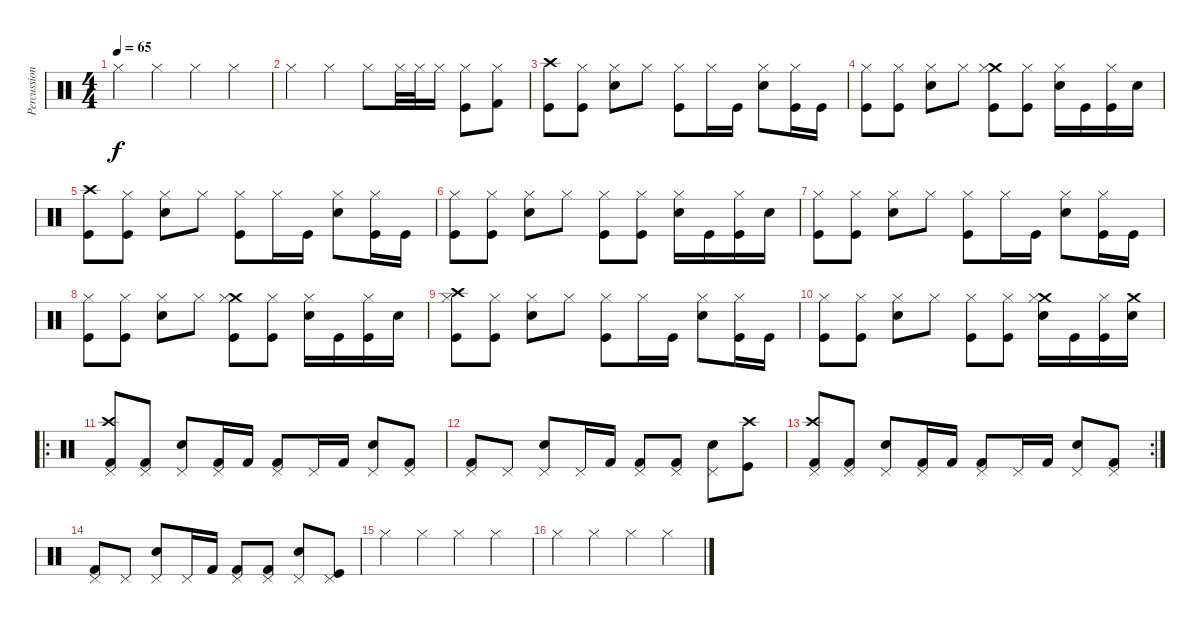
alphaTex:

\track ("Percussion" "Percussion") {instrument percussion}
\staff {score}
\articulation defaults
\ts (4 4)
\tempo 65
\clef neutral
\ks c "Hi-Hat (closed)".4{dy f} "Hi-Hat (closed)".4 "Hi-Hat (closed)".4 "Hi-Hat (closed)".4
|
"Hi-Hat (closed)".4 "Hi-Hat (closed)".4 "Hi-Hat (closed)".8 "Hi-Hat (closed)".32 "Hi-Hat (closed)".32 "Hi-Hat (closed)".16 ("Hi-Hat (closed)" "Kick (hit)").8 ("Hi-Hat (closed)" "Kick (hit) 2").8 |
("Crash high (hit)" "Kick (hit)").8 ("Hi-Hat (closed)" "Kick (hit)").8 ("Hi-Hat (closed)" "Electric Snare (hit)").8 "Hi-Hat (closed)".8 ("Hi-Hat (closed)" "Kick (hit)").8 "Hi-Hat (closed)".16 "Kick (hit)".16 ("Hi-Hat (closed)" "Electric Snare (hit)").8 ("Hi-Hat (closed)" "Kick (hit)").16 "Kick (hit)".16 |
("Hi-Hat (closed)" "Kick (hit)").8 ("Hi-Hat (closed)" "Kick (hit)").8 ("Hi-Hat (closed)" "Electric Snare (hit)").8 "Hi-Hat (closed)".8 ("Crash medium (hit)" "Hi-Hat (closed)" "Kick (hit)").8 ("Hi-Hat (closed)" "Kick (hit)").8 ("Hi-Hat (closed)" "Electric Snare (hit)").16 "Kick (hit)".16 ("Hi-Hat (closed)" "Kick (hit)").16 "Electric Snare (hit)".16 |
("Crash high (hit)" "Kick (hit)").8 ("Hi-Hat (closed)" "Kick (hit)").8 ("Hi-Hat (closed)" "Electric Snare (hit)").8 "Hi-Hat (closed)".8 ("Hi-Hat (closed)" "Kick (hit)").8 "Hi-Hat (closed)".16 "Kick (hit)".16 ("Hi-Hat (closed)" "Electric Snare (hit)").8 ("Hi-Hat (closed)" "Kick (hit)").16 "Kick (hit)".16 |
("Hi-Hat (closed)" "Kick (hit)").8 ("Hi-Hat (closed)" "Kick (hit)").8 ("Hi-Hat (closed)" "Electric Snare (hit)").8 "Hi-Hat (closed)".8 ("Hi-Hat (closed)" "Kick (hit)").8 ("Hi-Hat (closed)" "Kick (hit)").8 ("Hi-Hat (closed)" "Electric Snare (hit)").16 "Kick (hit)".16 ("Hi-Hat (closed)" "Kick (hit)").16 "Electric Snare (hit)".16 |
("Hi-Hat (closed)" "Kick (hit)").8 ("Hi-Hat (closed)" "Kick (hit)").8 ("Hi-Hat (closed)" "Electric Snare (hit)").8 "Hi-Hat (closed)".8 ("Hi-Hat (closed)" "Kick (hit)").8 "Hi-Hat (closed)".16 "Kick (hit)".16 ("Hi-Hat (closed)" "Electric Snare (hit)").8 ("Hi-Hat (closed)" "Kick (hit)").16 "Kick (hit)".16 |
("Hi-Hat (closed)" "Kick (hit)").8 ("Hi-Hat (closed)" "Kick (hit)").8 ("Hi-Hat (closed)" "Electric Snare (hit)").8 "Hi-Hat (closed)".8 ("Crash medium (hit)" "Hi-Hat (closed)" "Kick (hit)").8 ("Hi-Hat (closed)" "Kick (hit)").8 ("Hi-Hat (closed)" "Electric Snare (hit)").16 "Kick (hit)".16 ("Hi-Hat (closed)" "Kick (hit)").16 "Electric Snare (hit)".16 |
("Crash high (hit)" "Hi-Hat (closed)" "Kick (hit)").8 ("Hi-Hat (closed)" "Kick (hit)").8 ("Hi-Hat (closed)" "Electric Snare (hit)").8 "Hi-Hat (closed)".8 ("Hi-Hat (closed)" "Kick (hit)").8 "Hi-Hat (closed)".16 "Kick (hit)".16 ("Hi-Hat (closed)" "Electric Snare (hit)").8 ("Hi-Hat (closed)" "Kick (hit)").16 "Kick (hit)".16 |
("Hi-Hat (closed)" "Kick (hit)").8 ("Hi-Hat (closed)" "Kick (hit)").8 ("Hi-Hat (closed)" "Electric Snare (hit)").8 "Hi-Hat (closed)".8 ("Hi-Hat (closed)" "Kick (hit)").8 ("Hi-Hat (closed)" "Kick (hit)").8 ("Crash medium (hit)" "Hi-Hat (closed)" "Electric Snare (hit)").16 "Kick (hit)".16 ("Hi-Hat (closed)" "Kick (hit)").16 ("Crash medium (hit)" "Electric Snare (hit)").16 |
\ro
("Crash high (hit)" "Pedal Hi-Hat (hit)" "Kick (hit) 2").8 ("Pedal Hi-Hat (hit)" "Kick (hit) 2").8 ("Pedal Hi-Hat (hit)" "Electric Snare (hit)").8 ("Pedal Hi-Hat (hit)" "Kick (hit) 2").16 "Kick (hit) 2".16 ("Pedal Hi-Hat (hit)" "Kick (hit) 2").8 "Pedal Hi-Hat (hit)".16 "Kick (hit) 2".16 ("Pedal Hi-Hat (hit)" "Electric Snare (hit)").8 ("Pedal Hi-Hat (hit)" "Kick (hit) 2").8 |
("Pedal Hi-Hat (hit)" "Kick (hit) 2").8 "Pedal Hi-Hat (hit)".8 ("Pedal Hi-Hat (hit)" "Electric Snare (hit)").8 "Pedal Hi-Hat (hit)".16 "Kick (hit) 2".16 ("Pedal Hi-Hat (hit)" "Kick (hit) 2").8 ("Pedal Hi-Hat (hit)" "Kick (hit) 2").8 ("Pedal Hi-Hat (hit)" "Electric Snare (hit)").8 ("Crash high (hit)" "Kick (hit)").8 |
\rc 2
("Crash high (hit)" "Pedal Hi-Hat (hit)" "Kick (hit) 2").8 ("Pedal Hi-Hat (hit)" "Kick (hit) 2").8 ("Pedal Hi-Hat (hit)" "Electric Snare (hit)").8 ("Pedal Hi-Hat (hit)" "Kick (hit) 2").16 "Kick (hit) 2".16 ("Pedal Hi-Hat (hit)" "Kick (hit) 2").8 "Pedal Hi-Hat (hit)".16 "Kick (hit) 2".16 ("Pedal Hi-Hat (hit)" "Electric Snare (hit)").8 ("Pedal Hi-Hat (hit)" "Kick (hit) 2").8 |
("Pedal Hi-Hat (hit)" "Kick (hit) 2").8 "Pedal Hi-Hat (hit)".8 ("Pedal Hi-Hat (hit)" "Electric Snare (hit)").8 "Pedal Hi-Hat (hit)".16 "Kick (hit) 2".16 ("Pedal Hi-Hat (hit)" "Kick (hit) 2").8 ("Pedal Hi-Hat (hit)" "Kick (hit) 2").8 ("Pedal Hi-Hat (hit)" "Electric Snare (hit)").8 ("Pedal Hi-Hat (hit)" "Kick (hit)").8 |
"Hi-Hat (closed)".4 "Hi-Hat (closed)".4 "Hi-Hat (closed)".4 "Hi-Hat (closed)".4 |
"Hi-Hat (closed)".4 "Hi-Hat (closed)".4 "Hi-Hat (closed)".4 "Hi-Hat (closed)".4
